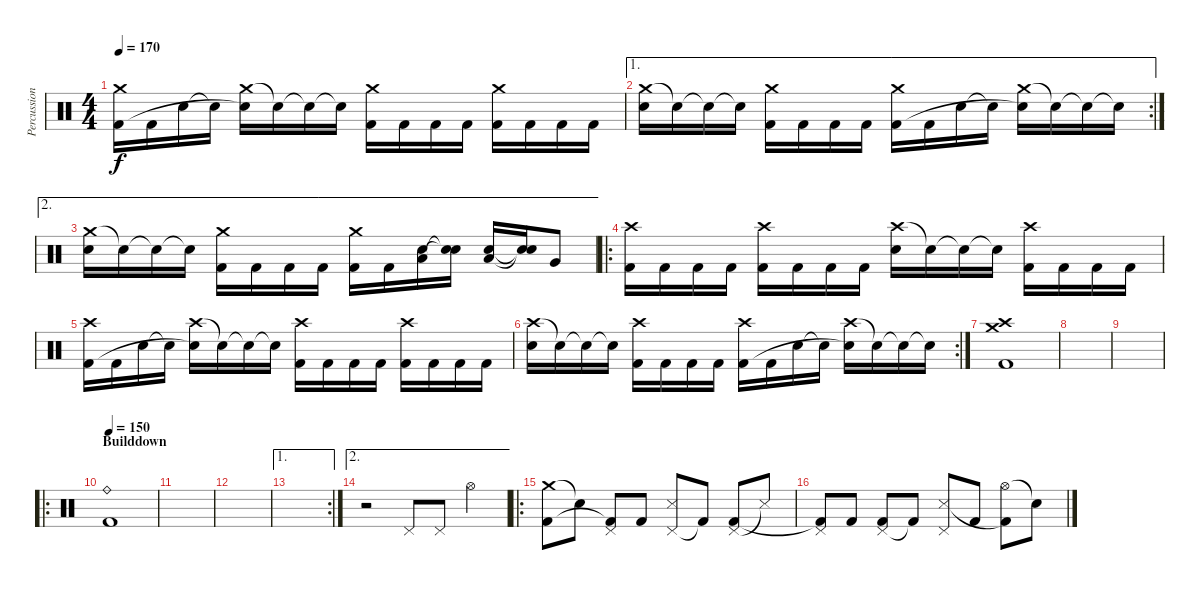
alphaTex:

\track ("Percussion" "Percussion") {instrument percussion}
\staff {score}
\articulation defaults
\ts (4 4)
\tempo 170
\clef neutral
\ks c
("Crash medium (hit)" "Kick (hit) 2").16{dy f} "Kick (hit) 2".16 "Electric Snare (hit)".16 "Snare (hit)"{t}.16 ("Crash medium (hit)" "Snare (hit)"{t}).16 "Snare (hit)"{t}.16 "Snare (hit)"{t}.16 "Snare (hit)"{t}.16 ("Crash medium (hit)" "Kick (hit) 2").16 "Kick (hit) 2".16 "Kick (hit) 2".16 "Kick (hit) 2".16 ("Crash medium (hit)" "Kick (hit) 2").16 "Kick (hit) 2".16 "Kick (hit) 2".16 "Kick (hit) 2".16 |
\ae 1
\rc 2
("Crash medium (hit)" "Electric Snare (hit)").16 "Snare (hit)"{t}.16 "Snare (hit)"{t}.16 "Snare (hit)"{t}.16 ("Crash medium (hit)" "Kick (hit) 2").16 "Kick (hit) 2".16 "Kick (hit) 2".16 "Kick (hit) 2".16 ("Crash medium (hit)" "Kick (hit) 2").16 "Kick (hit) 2".16 "Electric Snare (hit)".16 "Snare (hit)"{t}.16 ("Crash medium (hit)" "Snare (hit)"{t}).16 "Snare (hit)"{t}.16 "Snare (hit)"{t}.16 "Snare (hit)"{t}.16 |
\ae 2
("Crash medium (hit)" "Electric Snare (hit)").16 "Snare (hit)"{t}.16 "Snare (hit)"{t}.16 "Snare (hit)"{t}.16 ("Crash medium (hit)" "Kick (hit) 2").16 "Kick (hit) 2".16 "Kick (hit) 2".16 "Kick (hit) 2".16 ("Crash medium (hit)" "Kick (hit) 2").16 "Kick (hit) 2".16 ("Low Tom (hit)" "Electric Snare (hit)").16 ("Snare (hit)"{t} "Snare (hit)"{t}).16 ("Low Tom (hit)" "Electric Snare (hit)").16 ("Snare (hit)"{t} "Snare (hit)"{t}).16 "Very Low Tom (hit)".8 |
\ro
("Crash high (hit)" "Kick (hit) 2").16 "Kick (hit) 2".16 "Kick (hit) 2".16 "Kick (hit) 2".16 ("Crash high (hit)" "Kick (hit) 2").16 "Kick (hit) 2".16 "Kick (hit) 2".16 "Kick (hit) 2".16 ("Crash high (hit)" "Electric Snare (hit)").16 "Snare (hit)"{t}.16 "Snare (hit)"{t}.16 "Snare (hit)"{t}.16 ("Crash high (hit)" "Kick (hit) 2").16 "Kick (hit) 2".16 "Kick (hit) 2".16 "Kick (hit) 2".16 |
("Crash high (hit)" "Kick (hit) 2").16 "Kick (hit) 2".16 "Electric Snare (hit)".16 "Snare (hit)"{t}.16 ("Crash high (hit)" "Snare (hit)"{t}).16 "Snare (hit)"{t}.16 "Snare (hit)"{t}.16 "Snare (hit)"{t}.16 ("Crash high (hit)" "Kick (hit) 2").16 "Kick (hit) 2".16 "Kick (hit) 2".16 "Kick (hit) 2".16 ("Crash high (hit)" "Kick (hit) 2").16 "Kick (hit) 2".16 "Kick (hit) 2".16 "Kick (hit) 2".16 |
\rc 2
("Crash high (hit)" "Electric Snare (hit)").16 "Snare (hit)"{t}.16 "Snare (hit)"{t}.16 "Snare (hit)"{t}.16 ("Crash high (hit)" "Kick (hit) 2").16 "Kick (hit) 2".16 "Kick (hit) 2".16 "Kick (hit) 2".16 ("Crash high (hit)" "Kick (hit) 2").16 "Kick (hit) 2".16 "Electric Snare (hit)".16 "Snare (hit)"{t}.16 ("Crash high (hit)" "Snare (hit)"{t}).16 "Snare (hit)"{t}.16 "Snare (hit)"{t}.16 "Snare (hit)"{t}.16 |
("Crash medium (hit)" "Crash high (hit)" "Kick (hit) 2").1 |
|
|
\ro
\section ("" "Builddown")
\tempo 150
("Ride (bell)" "Kick (hit) 2").1{volume 16} |
|
|
\ae 1
\rc 2
|
\ae 2
r.2 "Pedal Hi-Hat (hit)".8 "Pedal Hi-Hat (hit)".8 "Hi-Hat (open)".4 |
\ro
("Crash medium (hit)" "Kick (hit) 2").8 "Snare (hit)"{t}.8 ("Pedal Hi-Hat (hit)" "Kick (hit) 2"{t}).8 "Kick (hit) 2".8 ("Pedal Hi-Hat (hit)" "Snare (side stick) 3").8 "Kick (hit) 2"{t}.8 ("Pedal Hi-Hat (hit)" "Kick (hit) 2").8 "Snare (side stick) 3"{t}.8 |
("Pedal Hi-Hat (hit)" "Kick (hit) 2"{t}).8 "Kick (hit) 2".8 ("Pedal Hi-Hat (hit)" "Kick (hit) 2").8 "Kick (hit) 2"{t}.8 ("Pedal Hi-Hat (hit)" "Snare (side stick) 3").8 "Kick (hit) 2".8 ("Hi-Hat (open)" "Kick (hit) 2"{t}).8 "Snare (hit)"{t}.8
